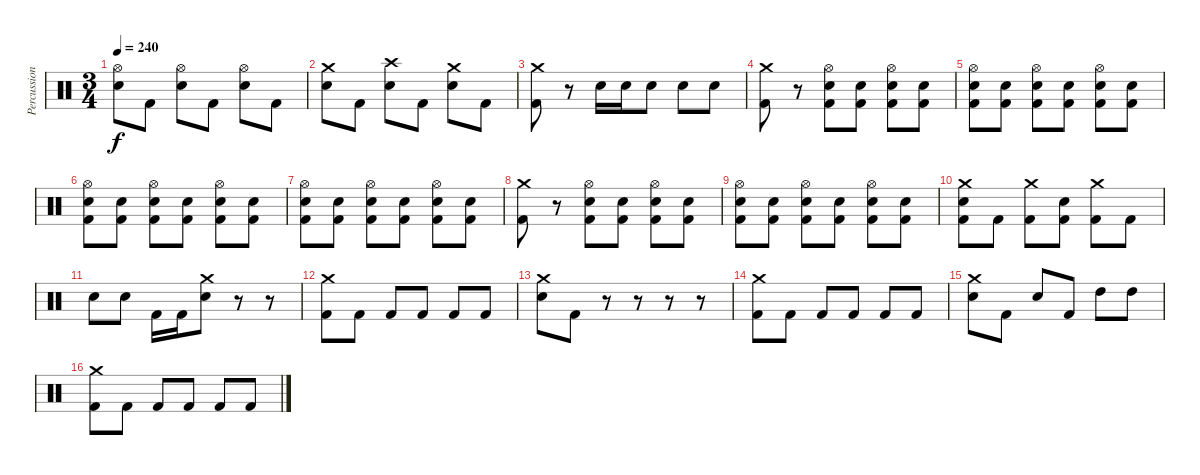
\track ("Percussion" "Percussion") {instrument percussion}
\staff {score}
\articulation defaults
\ts (3 4)
\tempo 240
\clef neutral
\ks c
("Hi-Hat (open)" "Electric Snare (hit)").8{dy f} "Kick (hit) 2".8 ("Hi-Hat (open)" "Electric Snare (hit)").8 "Kick (hit) 2".8 ("Hi-Hat (open)" "Electric Snare (hit)").8 "Kick (hit) 2".8 |
("Crash medium (hit)" "Electric Snare (hit)").8 "Kick (hit) 2".8 ("Crash high (hit)" "Electric Snare (hit)").8 "Kick (hit) 2".8 ("Crash medium (hit)" "Electric Snare (hit)").8 "Kick (hit) 2".8 |
("Crash medium (hit)" "Kick (hit) 2").8 r.8 "Electric Snare (hit)".16 "Electric Snare (hit)".16 "Electric Snare (hit)".8 "Electric Snare (hit)".8 "Electric Snare (hit)".8 |
("Crash medium (hit)" "Kick (hit) 2").8 r.8 ("Hi-Hat (open)" "Electric Snare (hit)" "Kick (hit) 2").8 ("Electric Snare (hit)" "Kick (hit) 2").8 ("Hi-Hat (open)" "Electric Snare (hit)" "Kick (hit) 2").8 ("Electric Snare (hit)" "Kick (hit) 2").8 |
("Hi-Hat (open)" "Electric Snare (hit)" "Kick (hit) 2").8 ("Electric Snare (hit)" "Kick (hit) 2").8 ("Hi-Hat (open)" "Electric Snare (hit)" "Kick (hit) 2").8 ("Electric Snare (hit)" "Kick (hit) 2").8 ("Hi-Hat (open)" "Electric Snare (hit)" "Kick (hit) 2").8 ("Electric Snare (hit)" "Kick (hit) 2").8 |
("Hi-Hat (open)" "Electric Snare (hit)" "Kick (hit) 2").8 ("Electric Snare (hit)" "Kick (hit) 2").8 ("Hi-Hat (open)" "Electric Snare (hit)" "Kick (hit) 2").8 ("Electric Snare (hit)" "Kick (hit) 2").8 ("Hi-Hat (open)" "Electric Snare (hit)" "Kick (hit) 2").8 ("Electric Snare (hit)" "Kick (hit) 2").8 |
("Hi-Hat (open)" "Electric Snare (hit)" "Kick (hit) 2").8 ("Electric Snare (hit)" "Kick (hit) 2").8 ("Hi-Hat (open)" "Electric Snare (hit)" "Kick (hit) 2").8 ("Electric Snare (hit)" "Kick (hit) 2").8 ("Hi-Hat (open)" "Electric Snare (hit)" "Kick (hit) 2").8 ("Electric Snare (hit)" "Kick (hit) 2").8 |
("Crash medium (hit)" "Kick (hit) 2").8 r.8 ("Hi-Hat (open)" "Electric Snare (hit)" "Kick (hit) 2").8 ("Electric Snare (hit)" "Kick (hit) 2").8 ("Hi-Hat (open)" "Electric Snare (hit)" "Kick (hit) 2").8 ("Electric Snare (hit)" "Kick (hit) 2").8 |
("Hi-Hat (open)" "Electric Snare (hit)" "Kick (hit) 2").8 ("Electric Snare (hit)" "Kick (hit) 2").8 ("Hi-Hat (open)" "Electric Snare (hit)" "Kick (hit) 2").8 ("Electric Snare (hit)" "Kick (hit) 2").8 ("Hi-Hat (open)" "Electric Snare (hit)" "Kick (hit) 2").8 ("Electric Snare (hit)" "Kick (hit) 2").8 |
("Crash medium (hit)" "Electric Snare (hit)" "Kick (hit) 2").8 "Kick (hit) 2".8 ("Crash medium (hit)" "Kick (hit) 2").8 ("Electric Snare (hit)" "Kick (hit) 2").8 ("Crash medium (hit)" "Kick (hit) 2").8 "Kick (hit) 2".8 |
"Electric Snare (hit)".8 "Electric Snare (hit)".8 "Kick (hit) 2".16 "Kick (hit) 2".16 ("Crash medium (hit)" "Electric Snare (hit)").8 r.8 r.8 |
("Crash medium (hit)" "Kick (hit) 2").8 "Kick (hit) 2".8 "Kick (hit) 2".8 "Kick (hit) 2".8 "Kick (hit) 2".8 "Kick (hit) 2".8 |
("Crash medium (hit)" "Electric Snare (hit)").8 "Kick (hit) 2".8 r.8 r.8 r.8 r.8 |
("Crash medium (hit)" "Kick (hit) 2").8 "Kick (hit) 2".8 "Kick (hit) 2".8 "Kick (hit) 2".8 "Kick (hit) 2".8 "Kick (hit) 2".8 |
("Crash medium (hit)" "Electric Snare (hit)").8 "Kick (hit) 2".8 "Electric Snare (hit)".8 "Kick (hit) 2".8 "High Tom (hit)".8 "High Tom (hit)".8 |
("Crash medium (hit)" "Kick (hit) 2").8 "Kick (hit) 2".8 "Kick (hit) 2".8 "Kick (hit) 2".8 "Kick (hit) 2".8 "Kick (hit) 2".8
